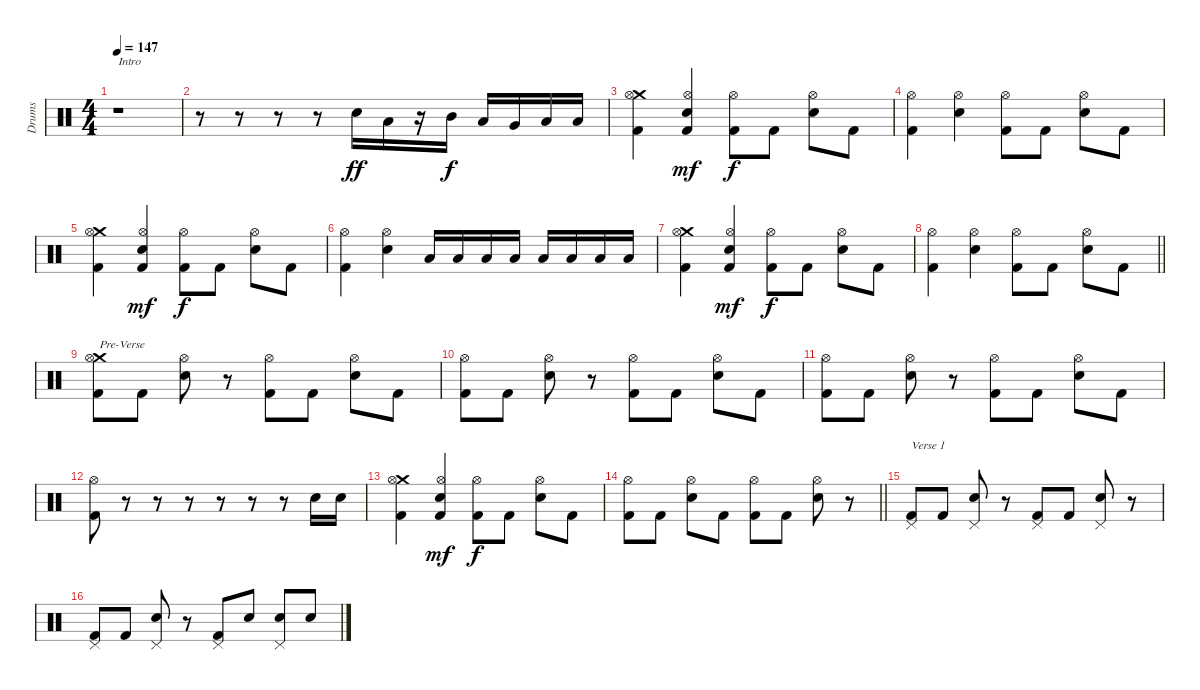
\track ("Drums" "Drums") {instrument percussion}
\staff {score}
\articulation defaults
\ts (4 4)
\tempo 147
\clef neutral
\ks c
r.1{txt "Intro" dy ff} |
r.8 r.8 r.8 r.8 "Electric Snare (hit)".16 "Low Tom (hit)".16 r.16 "Mid Tom (hit)".16{dy f} "Low Tom (hit)".16 "Very Low Tom (hit)".16 "Low Floor Tom (hit)".16 "Low Floor Tom (hit)".16 |
("Crash medium (hit)" "Hi-Hat (open)" "Kick (hit) 2").4 ("Hi-Hat (open)" "Electric Snare (hit)" "Kick (hit) 2").4{dy mf} ("Hi-Hat (open)" "Kick (hit) 2").8{dy f} "Kick (hit) 2".8 ("Hi-Hat (open)" "Electric Snare (hit)").8 "Kick (hit) 2".8 |
("Hi-Hat (open)" "Kick (hit) 2").4 ("Hi-Hat (open)" "Electric Snare (hit)").4 ("Hi-Hat (open)" "Kick (hit) 2").8 "Kick (hit) 2".8 ("Hi-Hat (open)" "Electric Snare (hit)").8 "Kick (hit) 2".8 |
("Crash medium (hit)" "Hi-Hat (open)" "Kick (hit) 2").4 ("Hi-Hat (open)" "Electric Snare (hit)" "Kick (hit) 2").4{dy mf} ("Hi-Hat (open)" "Kick (hit) 2").8{dy f} "Kick (hit) 2".8 ("Hi-Hat (open)" "Electric Snare (hit)").8 "Kick (hit) 2".8 |
("Hi-Hat (open)" "Kick (hit) 2").4 ("Hi-Hat (open)" "Electric Snare (hit)").4 "Low Tom (hit)".16 "Low Tom (hit)".16 "Low Tom (hit)".16 "Low Tom (hit)".16 "Low Tom (hit)".16 "Low Tom (hit)".16 "Low Tom (hit)".16 "Low Tom (hit)".16 |
("Crash medium (hit)" "Hi-Hat (open)" "Kick (hit) 2").4 ("Hi-Hat (open)" "Electric Snare (hit)" "Kick (hit) 2").4{dy mf} ("Hi-Hat (open)" "Kick (hit) 2").8{dy f} "Kick (hit) 2".8 ("Hi-Hat (open)" "Electric Snare (hit)").8 "Kick (hit) 2".8 |
\barLineRight lightlight
("Hi-Hat (open)" "Kick (hit) 2").4 ("Hi-Hat (open)" "Electric Snare (hit)").4 ("Hi-Hat (open)" "Kick (hit) 2").8 "Kick (hit) 2".8 ("Hi-Hat (open)" "Electric Snare (hit)").8 "Kick (hit) 2".8 |
("Crash medium (hit)" "Hi-Hat (open)" "Kick (hit) 2").8{txt "Pre-Verse"} "Kick (hit) 2".8 ("Hi-Hat (open)" "Electric Snare (hit)").8 r.8 ("Hi-Hat (open)" "Kick (hit) 2").8 "Kick (hit) 2".8 ("Hi-Hat (open)" "Electric Snare (hit)").8 "Kick (hit) 2".8 |
("Hi-Hat (open)" "Kick (hit) 2").8 "Kick (hit) 2".8 ("Hi-Hat (open)" "Electric Snare (hit)").8 r.8 ("Hi-Hat (open)" "Kick (hit) 2").8 "Kick (hit) 2".8 ("Hi-Hat (open)" "Electric Snare (hit)").8 "Kick (hit) 2".8 |
("Hi-Hat (open)" "Kick (hit) 2").8 "Kick (hit) 2".8 ("Hi-Hat (open)" "Electric Snare (hit)").8 r.8 ("Hi-Hat (open)" "Kick (hit) 2").8 "Kick (hit) 2".8 ("Hi-Hat (open)" "Electric Snare (hit)").8 "Kick (hit) 2".8 |
("Hi-Hat (open)" "Kick (hit) 2").8 r.8 r.8 r.8 r.8 r.8 r.8 "Electric Snare (hit)".16 "Electric Snare (hit)".16 |
("Crash medium (hit)" "Hi-Hat (open)" "Kick (hit) 2").4 ("Hi-Hat (open)" "Electric Snare (hit)" "Kick (hit) 2").4{dy mf} ("Hi-Hat (open)" "Kick (hit) 2").8{dy f} "Kick (hit) 2".8 ("Hi-Hat (open)" "Electric Snare (hit)").8 "Kick (hit) 2".8 |
\barLineRight lightlight
("Hi-Hat (open)" "Kick (hit) 2").8 "Kick (hit) 2".8 ("Hi-Hat (open)" "Electric Snare (hit)").8 "Kick (hit) 2".8 ("Hi-Hat (open)" "Kick (hit) 2").8 "Kick (hit) 2".8 ("Hi-Hat (open)" "Electric Snare (hit)").8 r.8 |
("Pedal Hi-Hat (hit)" "Kick (hit) 2").8{txt "Verse 1"} "Kick (hit) 2".8 ("Pedal Hi-Hat (hit)" "Electric Snare (hit)").8 r.8 ("Pedal Hi-Hat (hit)" "Kick (hit) 2").8 "Kick (hit) 2".8 ("Pedal Hi-Hat (hit)" "Electric Snare (hit)").8 r.8 |
("Pedal Hi-Hat (hit)" "Kick (hit) 2").8 "Kick (hit) 2".8 ("Pedal Hi-Hat (hit)" "Electric Snare (hit)").8 r.8 ("Pedal Hi-Hat (hit)" "Kick (hit) 2").8 "Electric Snare (hit)".8 ("Pedal Hi-Hat (hit)" "Electric Snare (hit)").8 "Electric Snare (hit)".8
